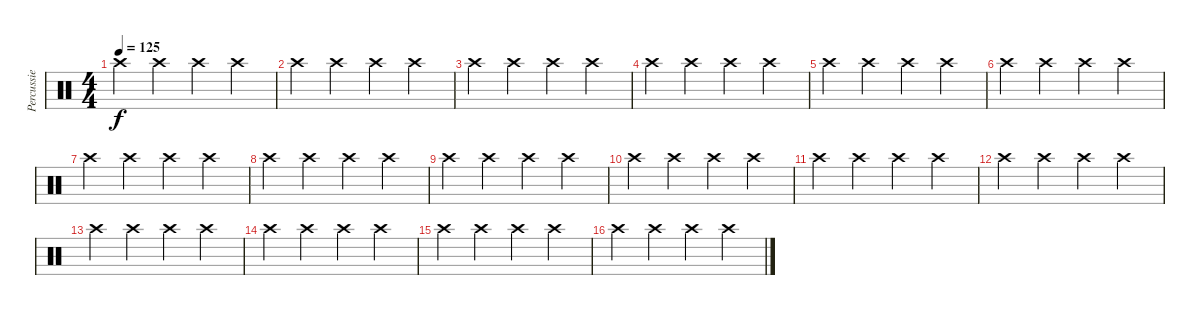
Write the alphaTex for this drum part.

\track ("Percussie" "Percussie") {instrument percussion}
\staff {score}
\articulation defaults
\ts (4 4)
\tempo 125
\clef neutral
\ks c "Crash high (hit)".4{dy f} "Crash high (hit)".4 "Crash high (hit)".4 "Crash high (hit)".4
|
"Crash high (hit)".4 "Crash high (hit)".4 "Crash high (hit)".4 "Crash high (hit)".4 |
"Crash high (hit)".4 "Crash high (hit)".4 "Crash high (hit)".4 "Crash high (hit)".4 |
"Crash high (hit)".4 "Crash high (hit)".4 "Crash high (hit)".4 "Crash high (hit)".4 |
"Crash high (hit)".4 "Crash high (hit)".4 "Crash high (hit)".4 "Crash high (hit)".4 |
"Crash high (hit)".4 "Crash high (hit)".4 "Crash high (hit)".4 "Crash high (hit)".4 |
"Crash high (hit)".4 "Crash high (hit)".4 "Crash high (hit)".4 "Crash high (hit)".4 |
"Crash high (hit)".4 "Crash high (hit)".4 "Crash high (hit)".4 "Crash high (hit)".4 |
"Crash high (hit)".4 "Crash high (hit)".4 "Crash high (hit)".4 "Crash high (hit)".4 |
"Crash high (hit)".4 "Crash high (hit)".4 "Crash high (hit)".4 "Crash high (hit)".4 |
"Crash high (hit)".4 "Crash high (hit)".4 "Crash high (hit)".4 "Crash high (hit)".4 |
"Crash high (hit)".4 "Crash high (hit)".4 "Crash high (hit)".4 "Crash high (hit)".4 |
"Crash high (hit)".4 "Crash high (hit)".4 "Crash high (hit)".4 "Crash high (hit)".4 |
"Crash high (hit)".4 "Crash high (hit)".4 "Crash high (hit)".4 "Crash high (hit)".4 |
"Crash high (hit)".4 "Crash high (hit)".4 "Crash high (hit)".4 "Crash high (hit)".4 |
"Crash high (hit)".4 "Crash high (hit)".4 "Crash high (hit)".4 "Crash high (hit)".4
